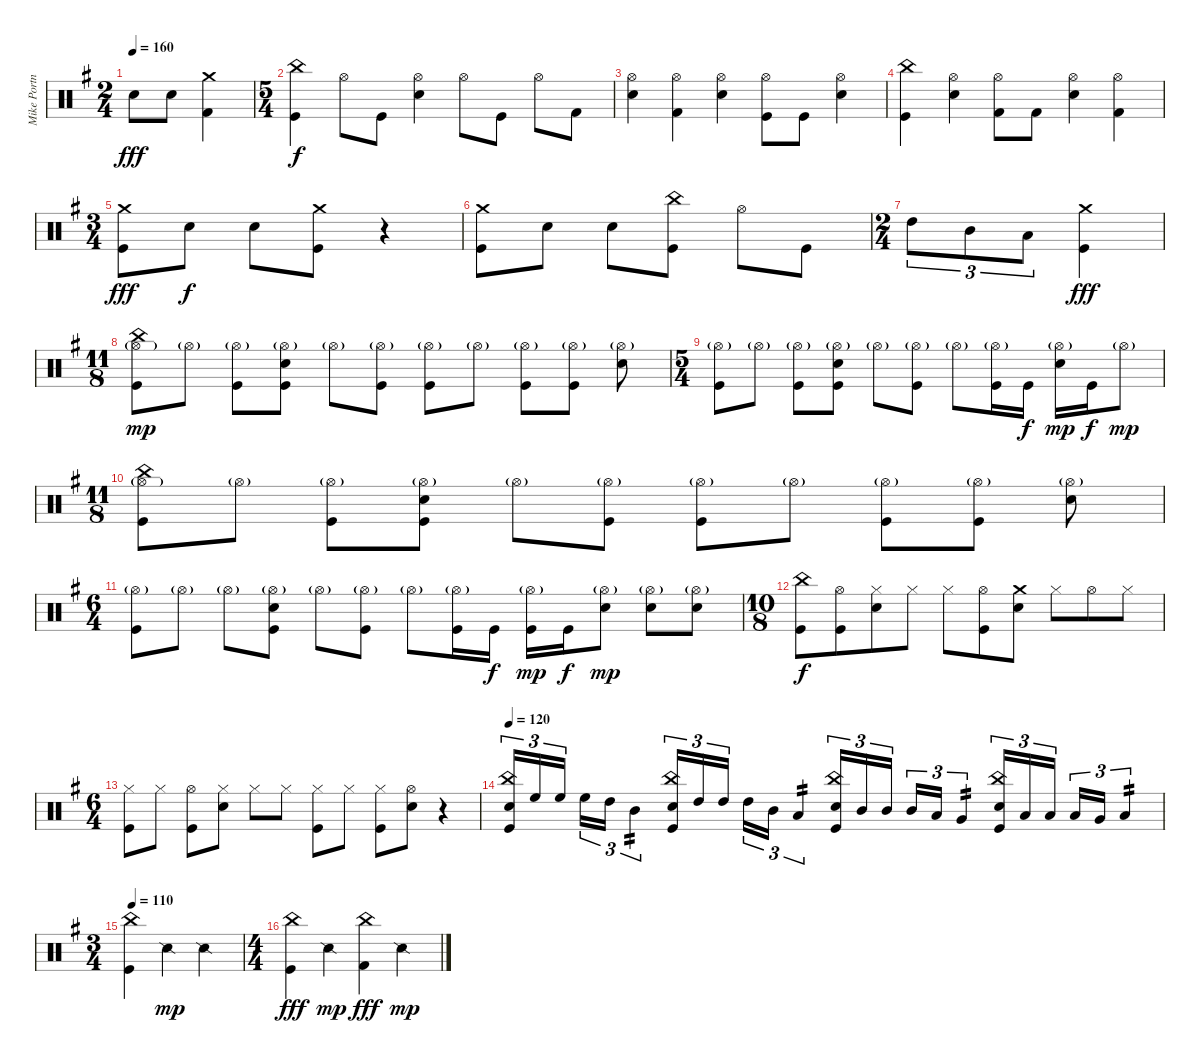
\track ("Mike Portnoy - Drums" "Mike Portn") {instrument percussion}
\staff {score}
\articulation defaults
\ts (2 4)
\tempo 160
\clef neutral
\ks g "Electric Snare (hit)".8{dy fff} "Electric Snare (hit)".8
("Kick (hit) 2" "Crash medium (hit)").4 |
\ts (5 4)
("Kick (hit)" "China (hit)").4{dy f} "Hi-Hat (open)".8 "Kick (hit)".8 ("Snare (hit) 2" "Hi-Hat (open)").4 "Hi-Hat (open)".8 "Kick (hit)".8 "Hi-Hat (open)".8 "Kick (hit) 2".8 |
("Hi-Hat (open)" "Snare (hit) 2").4 ("Hi-Hat (open)" "Kick (hit) 2").4 ("Snare (hit) 2" "Hi-Hat (open)").4 ("Kick (hit)" "Hi-Hat (open)").8 "Kick (hit)".8 ("Hi-Hat (open)" "Snare (hit) 2").4 |
("Kick (hit)" "China (hit)").4 ("Snare (hit) 2" "Hi-Hat (open)").4 ("Kick (hit) 2" "Hi-Hat (open)").8 "Kick (hit) 2".8 ("Snare (hit) 2" "Hi-Hat (open)").4 ("Kick (hit) 2" "Hi-Hat (open)").4 |
\ts (3 4)
("Kick (hit)" "Crash medium (hit)").8{dy fff} "Electric Snare (hit)".8{dy f} "Electric Snare (hit)".8 ("Kick (hit)" "Crash medium (hit)").8 r.4 |
("Kick (hit)" "Crash medium (hit)").8 "Electric Snare (hit)".8 "Electric Snare (hit)".8 ("Kick (hit)" "China (hit)").8 "Hi-Hat (open)".8 "Kick (hit)".8 |
\ts (2 4)
"High Tom (hit)".8{tu (3 2)} "Mid Tom (hit)".8{tu (3 2)} "Low Tom (hit)".8{tu (3 2)} ("Kick (hit)" "Crash medium (hit)").4{dy fff} |
\ts (11 8)
("Kick (hit)" "Hi-Hat (open)"{g} "China (hit)").8{dy mp} "Hi-Hat (open)"{g}.8 ("Kick (hit)" "Hi-Hat (open)"{g}).8 ("Kick (hit)" "Snare (hit) 2" "Hi-Hat (open)"{g}).8 "Hi-Hat (open)"{g}.8 ("Kick (hit)" "Hi-Hat (open)"{g}).8 ("Kick (hit)" "Hi-Hat (open)"{g}).8 "Hi-Hat (open)"{g}.8 ("Kick (hit)" "Hi-Hat (open)"{g}).8 ("Kick (hit)" "Hi-Hat (open)"{g}).8 ("Snare (hit) 2" "Hi-Hat (open)"{g}).8 |
\ts (5 4)
("Kick (hit)" "Hi-Hat (open)"{g}).8 "Hi-Hat (open)"{g}.8 ("Kick (hit)" "Hi-Hat (open)"{g}).8 ("Kick (hit)" "Snare (hit) 2" "Hi-Hat (open)"{g}).8 "Hi-Hat (open)"{g}.8 ("Kick (hit)" "Hi-Hat (open)"{g}).8 "Hi-Hat (open)"{g}.8 ("Kick (hit)" "Hi-Hat (open)"{g}).16 "Kick (hit)".16{dy f} ("Snare (hit) 2" "Hi-Hat (open)"{g}).16{dy mp} "Kick (hit)".16{dy f} "Hi-Hat (open)"{g}.8{dy mp} |
\ts (11 8)
("Kick (hit)" "Hi-Hat (open)"{g} "China (hit)").8 "Hi-Hat (open)"{g}.8 ("Kick (hit)" "Hi-Hat (open)"{g}).8 ("Kick (hit)" "Snare (hit) 2" "Hi-Hat (open)"{g}).8 "Hi-Hat (open)"{g}.8 ("Kick (hit)" "Hi-Hat (open)"{g}).8 ("Kick (hit)" "Hi-Hat (open)"{g}).8 "Hi-Hat (open)"{g}.8 ("Kick (hit)" "Hi-Hat (open)"{g}).8 ("Kick (hit)" "Hi-Hat (open)"{g}).8 ("Snare (hit) 2" "Hi-Hat (open)"{g}).8 |
\ts (6 4)
("Kick (hit)" "Hi-Hat (open)"{g}).8 "Hi-Hat (open)"{g}.8 "Hi-Hat (open)"{g}.8 ("Kick (hit)" "Snare (hit) 2" "Hi-Hat (open)"{g}).8 "Hi-Hat (open)"{g}.8 ("Kick (hit)" "Hi-Hat (open)"{g}).8 "Hi-Hat (open)"{g}.8 ("Kick (hit)" "Hi-Hat (open)"{g}).16 "Kick (hit)".16{dy f} ("Kick (hit)" "Hi-Hat (open)"{g}).16{dy mp} "Kick (hit)".16{dy f} ("Snare (hit) 2" "Hi-Hat (open)"{g}).8{dy mp} ("Snare (hit) 2" "Hi-Hat (open)"{g}).8 ("Snare (hit) 2" "Hi-Hat (open)"{g}).8 |
\ts (10 8)
("Kick (hit)" "China (hit)").8{dy f} ("Kick (hit)" "Hi-Hat (open)").8 ("Snare (hit) 2" "Hi-Hat (closed)").8 "Hi-Hat (closed)".8 "Hi-Hat (closed)".8 ("Kick (hit)" "Hi-Hat (open)").8 ("Snare (hit) 2" "Crash medium (hit)").8 "Hi-Hat (closed)".8 "Hi-Hat (open)".8 "Hi-Hat (closed)".8 |
\ts (6 4)
("Kick (hit)" "Hi-Hat (closed)").8 "Hi-Hat (closed)".8 ("Kick (hit)" "Hi-Hat (open)").8 ("Snare (hit) 2" "Hi-Hat (closed)").8 "Hi-Hat (closed)".8 "Hi-Hat (closed)".8 ("Kick (hit)" "Hi-Hat (closed)").8 "Hi-Hat (closed)".8 ("Kick (hit)" "Hi-Hat (closed)").8 ("Snare (hit) 2" "Hi-Hat (open)").8 r.4 |
\tempo 120
("Kick (hit)" "Snare (hit) 2" "China (hit)").16{tu (3 2)} "High Floor Tom (hit)".16{tu (3 2)} "High Floor Tom (hit)".16{tu (3 2) beam splitsecondary} "High Floor Tom (hit)".16{tu (3 2)} "High Tom (hit)".16{tu (3 2)} "Mid Tom (hit)".4{tu (3 2) tp 2} ("Kick (hit)" "Snare (hit) 2" "China (hit)").16{tu (3 2)} "High Tom (hit)".16{tu (3 2)} "High Tom (hit)".16{tu (3 2) beam splitsecondary} "High Tom (hit)".16{tu (3 2)} "Mid Tom (hit)".16{tu (3 2)} "Low Tom (hit)".4{tu (3 2) tp 2} ("Kick (hit)" "Snare (hit) 2" "China (hit)").16{tu (3 2)} "Mid Tom (hit)".16{tu (3 2)} "Mid Tom (hit)".16{tu (3 2) beam splitsecondary} "Mid Tom (hit)".16{tu (3 2)} "Low Tom (hit)".16{tu (3 2)} "Very Low Tom (hit)".4{tu (3 2) tp 2} ("Kick (hit)" "Snare (hit) 2" "China (hit)").16{tu (3 2)} "Low Tom (hit)".16{tu (3 2)} "Low Tom (hit)".16{tu (3 2) beam splitsecondary} "Low Tom (hit)".16{tu (3 2)} "Very Low Tom (hit)".16{tu (3 2)} "Low Floor Tom (hit)".4{tu (3 2) tp 2} |
\ts (3 4)
\tempo 110
("Kick (hit)" "China (hit)").4 "Snare (side stick) 2".4{dy mp} "Snare (side stick) 2".4 |
\ts (4 4)
("Kick (hit)" "China (hit)").4{dy fff} "Snare (side stick) 2".4{dy mp} ("China (hit)" "Kick (hit) 2").4{dy fff} "Snare (side stick) 2".4{dy mp}
